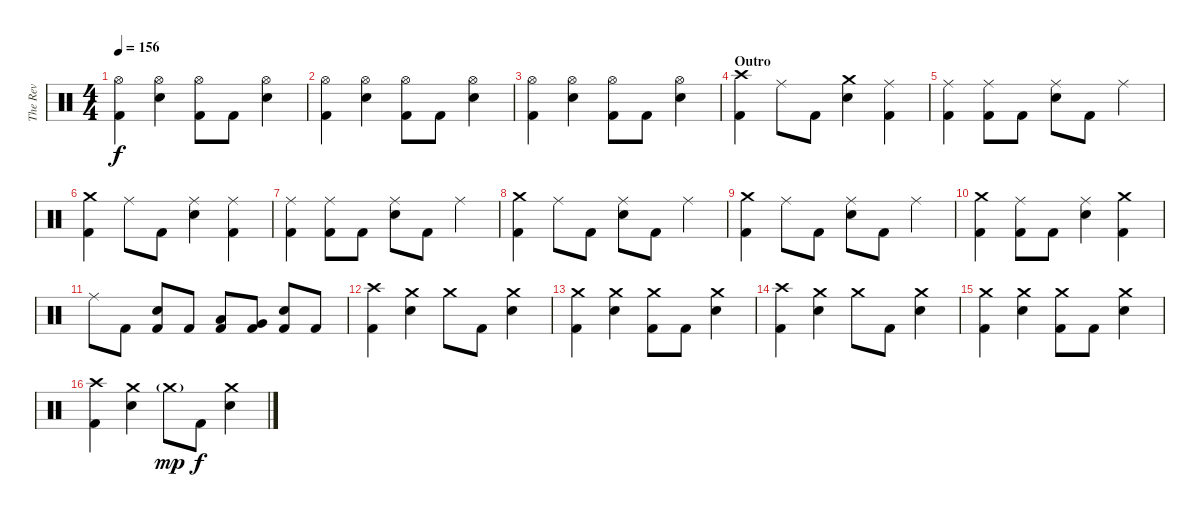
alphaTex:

\track ("The Rev" "The Rev") {instrument percussion}
\staff {score}
\articulation defaults
\ts (4 4)
\tempo 156
\clef neutral
\ks c
("Hi-Hat (open)" "Kick (hit) 2").4{dy f} ("Hi-Hat (open)" "Electric Snare (hit)").4 ("Hi-Hat (open)" "Kick (hit) 2").8 "Kick (hit) 2".8 ("Hi-Hat (open)" "Electric Snare (hit)").4 |
("Hi-Hat (open)" "Kick (hit) 2").4 ("Hi-Hat (open)" "Electric Snare (hit)").4 ("Hi-Hat (open)" "Kick (hit) 2").8 "Kick (hit) 2".8 ("Hi-Hat (open)" "Electric Snare (hit)").4 |
("Hi-Hat (open)" "Kick (hit) 2").4 ("Hi-Hat (open)" "Electric Snare (hit)").4 ("Hi-Hat (open)" "Kick (hit) 2").8 "Kick (hit) 2".8 ("Hi-Hat (open)" "Electric Snare (hit)").4 |
\section ("" "Outro")
("Crash high (hit)" "Kick (hit) 2").4 "Ride (middle)".8 "Kick (hit) 2".8 ("Crash medium (hit)" "Electric Snare (hit)").4 ("Ride (middle)" "Kick (hit) 2").4 |
("Ride (middle)" "Kick (hit) 2").4 ("Ride (middle)" "Kick (hit) 2").8 "Kick (hit) 2".8 ("Ride (middle)" "Electric Snare (hit)").8 "Kick (hit) 2".8 "Ride (middle)".4 |
("Crash medium (hit)" "Kick (hit) 2").4 "Ride (middle)".8 "Kick (hit) 2".8 ("Ride (middle)" "Electric Snare (hit)").4 ("Ride (middle)" "Kick (hit) 2").4 |
("Ride (middle)" "Kick (hit) 2").4 ("Ride (middle)" "Kick (hit) 2").8 "Kick (hit) 2".8 ("Ride (middle)" "Electric Snare (hit)").8 "Kick (hit) 2".8 "Ride (middle)".4 |
("Crash medium (hit)" "Kick (hit) 2").4 "Ride (middle)".8 "Kick (hit) 2".8 ("Ride (middle)" "Electric Snare (hit)").8 "Kick (hit) 2".8 "Ride (middle)".4 |
("Crash medium (hit)" "Kick (hit) 2").4 "Ride (middle)".8 "Kick (hit) 2".8 ("Ride (middle)" "Electric Snare (hit)").8 "Kick (hit) 2".8 "Ride (middle)".4 |
("Crash medium (hit)" "Kick (hit) 2").4 ("Ride (middle)" "Kick (hit) 2").8 "Kick (hit) 2".8 ("Ride (middle)" "Electric Snare (hit)").4 ("Crash medium (hit)" "Kick (hit) 2").4 |
"Ride (middle)".8 "Kick (hit) 2".8 ("Electric Snare (hit)" "Kick (hit) 2").8 "Kick (hit) 2".8 ("Low Tom (hit)" "Kick (hit) 2").8 ("Very Low Tom (hit)" "Kick (hit) 2").8 ("Electric Snare (hit)" "Kick (hit) 2").8 "Kick (hit) 2".8 |
("Crash high (hit)" "Kick (hit) 2").4 ("Crash medium (hit)" "Electric Snare (hit)").4 "Crash medium (hit)".8 "Kick (hit) 2".8 ("Crash medium (hit)" "Electric Snare (hit)").4 |
("Crash medium (hit)" "Kick (hit) 2").4 ("Crash medium (hit)" "Electric Snare (hit)").4 ("Crash medium (hit)" "Kick (hit) 2").8 "Kick (hit) 2".8 ("Crash medium (hit)" "Electric Snare (hit)").4 |
("Crash high (hit)" "Kick (hit) 2").4 ("Crash medium (hit)" "Electric Snare (hit)").4 "Crash medium (hit)".8 "Kick (hit) 2".8 ("Crash medium (hit)" "Electric Snare (hit)").4 |
("Crash medium (hit)" "Kick (hit) 2").4 ("Crash medium (hit)" "Electric Snare (hit)").4 ("Crash medium (hit)" "Kick (hit) 2").8 "Kick (hit) 2".8 ("Crash medium (hit)" "Electric Snare (hit)").4 |
("Crash high (hit)" "Kick (hit) 2").4 ("Crash medium (hit)" "Electric Snare (hit)").4 "Crash medium (hit)"{g}.8{dy mp} "Kick (hit) 2".8{dy f} ("Crash medium (hit)" "Electric Snare (hit)").4
